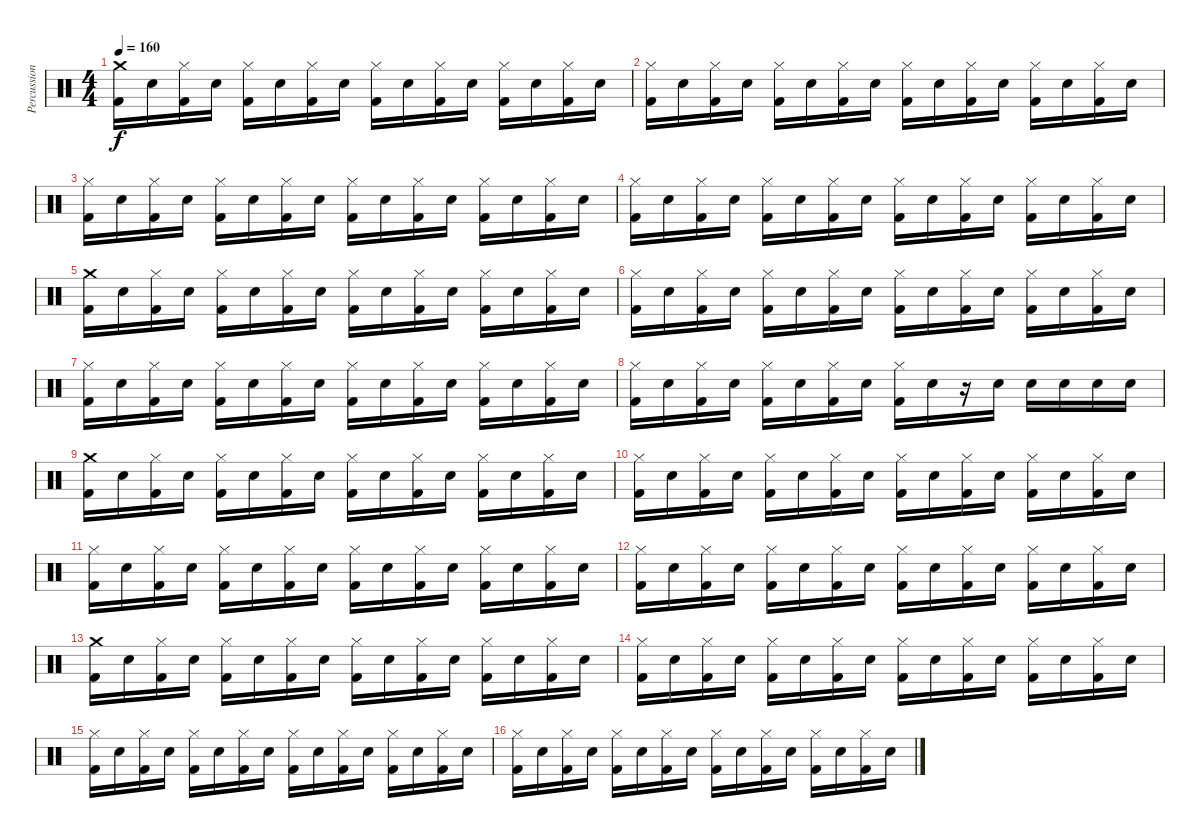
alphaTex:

\track ("Percussions" "Percussion") {instrument percussion}
\staff {score}
\articulation defaults
\ts (4 4)
\tempo 160
\clef neutral
\ks c
("Crash medium (hit)" "Kick (hit) 2").16{dy f} "Snare (hit) 2".16 ("Hi-Hat (closed)" "Kick (hit) 2").16 "Snare (hit) 2".16 ("Hi-Hat (closed)" "Kick (hit) 2").16 "Snare (hit) 2".16 ("Hi-Hat (closed)" "Kick (hit) 2").16 "Snare (hit) 2".16 ("Hi-Hat (closed)" "Kick (hit) 2").16 "Snare (hit) 2".16 ("Hi-Hat (closed)" "Kick (hit) 2").16 "Snare (hit) 2".16 ("Hi-Hat (closed)" "Kick (hit) 2").16 "Snare (hit) 2".16 ("Hi-Hat (closed)" "Kick (hit) 2").16 "Snare (hit) 2".16 |
("Hi-Hat (closed)" "Kick (hit) 2").16 "Snare (hit) 2".16 ("Hi-Hat (closed)" "Kick (hit) 2").16 "Snare (hit) 2".16 ("Hi-Hat (closed)" "Kick (hit) 2").16 "Snare (hit) 2".16 ("Hi-Hat (closed)" "Kick (hit) 2").16 "Snare (hit) 2".16 ("Hi-Hat (closed)" "Kick (hit) 2").16 "Snare (hit) 2".16 ("Hi-Hat (closed)" "Kick (hit) 2").16 "Snare (hit) 2".16 ("Hi-Hat (closed)" "Kick (hit) 2").16 "Snare (hit) 2".16 ("Hi-Hat (closed)" "Kick (hit) 2").16 "Snare (hit) 2".16 |
("Hi-Hat (closed)" "Kick (hit) 2").16 "Snare (hit) 2".16 ("Hi-Hat (closed)" "Kick (hit) 2").16 "Snare (hit) 2".16 ("Hi-Hat (closed)" "Kick (hit) 2").16 "Snare (hit) 2".16 ("Hi-Hat (closed)" "Kick (hit) 2").16 "Snare (hit) 2".16 ("Hi-Hat (closed)" "Kick (hit) 2").16 "Snare (hit) 2".16 ("Hi-Hat (closed)" "Kick (hit) 2").16 "Snare (hit) 2".16 ("Hi-Hat (closed)" "Kick (hit) 2").16 "Snare (hit) 2".16 ("Hi-Hat (closed)" "Kick (hit) 2").16 "Snare (hit) 2".16 |
("Hi-Hat (closed)" "Kick (hit) 2").16 "Snare (hit) 2".16 ("Hi-Hat (closed)" "Kick (hit) 2").16 "Snare (hit) 2".16 ("Hi-Hat (closed)" "Kick (hit) 2").16 "Snare (hit) 2".16 ("Hi-Hat (closed)" "Kick (hit) 2").16 "Snare (hit) 2".16 ("Hi-Hat (closed)" "Kick (hit) 2").16 "Snare (hit) 2".16 ("Hi-Hat (closed)" "Kick (hit) 2").16 "Snare (hit) 2".16 ("Hi-Hat (closed)" "Kick (hit) 2").16 "Snare (hit) 2".16 ("Hi-Hat (closed)" "Kick (hit) 2").16 "Snare (hit) 2".16 |
("Crash medium (hit)" "Kick (hit) 2").16 "Snare (hit) 2".16 ("Hi-Hat (closed)" "Kick (hit) 2").16 "Snare (hit) 2".16 ("Hi-Hat (closed)" "Kick (hit) 2").16 "Snare (hit) 2".16 ("Hi-Hat (closed)" "Kick (hit) 2").16 "Snare (hit) 2".16 ("Hi-Hat (closed)" "Kick (hit) 2").16 "Snare (hit) 2".16 ("Hi-Hat (closed)" "Kick (hit) 2").16 "Snare (hit) 2".16 ("Hi-Hat (closed)" "Kick (hit) 2").16 "Snare (hit) 2".16 ("Hi-Hat (closed)" "Kick (hit) 2").16 "Snare (hit) 2".16 |
("Hi-Hat (closed)" "Kick (hit) 2").16 "Snare (hit) 2".16 ("Hi-Hat (closed)" "Kick (hit) 2").16 "Snare (hit) 2".16 ("Hi-Hat (closed)" "Kick (hit) 2").16 "Snare (hit) 2".16 ("Hi-Hat (closed)" "Kick (hit) 2").16 "Snare (hit) 2".16 ("Hi-Hat (closed)" "Kick (hit) 2").16 "Snare (hit) 2".16 ("Hi-Hat (closed)" "Kick (hit) 2").16 "Snare (hit) 2".16 ("Hi-Hat (closed)" "Kick (hit) 2").16 "Snare (hit) 2".16 ("Hi-Hat (closed)" "Kick (hit) 2").16 "Snare (hit) 2".16 |
("Hi-Hat (closed)" "Kick (hit) 2").16 "Snare (hit) 2".16 ("Hi-Hat (closed)" "Kick (hit) 2").16 "Snare (hit) 2".16 ("Hi-Hat (closed)" "Kick (hit) 2").16 "Snare (hit) 2".16 ("Hi-Hat (closed)" "Kick (hit) 2").16 "Snare (hit) 2".16 ("Hi-Hat (closed)" "Kick (hit) 2").16 "Snare (hit) 2".16 ("Hi-Hat (closed)" "Kick (hit) 2").16 "Snare (hit) 2".16 ("Hi-Hat (closed)" "Kick (hit) 2").16 "Snare (hit) 2".16 ("Hi-Hat (closed)" "Kick (hit) 2").16 "Snare (hit) 2".16 |
("Hi-Hat (closed)" "Kick (hit) 2").16 "Snare (hit) 2".16 ("Hi-Hat (closed)" "Kick (hit) 2").16 "Snare (hit) 2".16 ("Hi-Hat (closed)" "Kick (hit) 2").16 "Snare (hit) 2".16 ("Hi-Hat (closed)" "Kick (hit) 2").16 "Snare (hit) 2".16 ("Hi-Hat (closed)" "Kick (hit) 2").16 "Snare (hit) 2".16 r.16 "Snare (hit) 2".16 "Snare (hit) 2".16 "Snare (hit) 2".16 "Snare (hit) 2".16 "Snare (hit) 2".16 |
("Crash medium (hit)" "Kick (hit) 2").16 "Snare (hit) 2".16 ("Hi-Hat (closed)" "Kick (hit) 2").16 "Snare (hit) 2".16 ("Hi-Hat (closed)" "Kick (hit) 2").16 "Snare (hit) 2".16 ("Hi-Hat (closed)" "Kick (hit) 2").16 "Snare (hit) 2".16 ("Hi-Hat (closed)" "Kick (hit) 2").16 "Snare (hit) 2".16 ("Hi-Hat (closed)" "Kick (hit) 2").16 "Snare (hit) 2".16 ("Hi-Hat (closed)" "Kick (hit) 2").16 "Snare (hit) 2".16 ("Hi-Hat (closed)" "Kick (hit) 2").16 "Snare (hit) 2".16 |
("Hi-Hat (closed)" "Kick (hit) 2").16 "Snare (hit) 2".16 ("Hi-Hat (closed)" "Kick (hit) 2").16 "Snare (hit) 2".16 ("Hi-Hat (closed)" "Kick (hit) 2").16 "Snare (hit) 2".16 ("Hi-Hat (closed)" "Kick (hit) 2").16 "Snare (hit) 2".16 ("Hi-Hat (closed)" "Kick (hit) 2").16 "Snare (hit) 2".16 ("Hi-Hat (closed)" "Kick (hit) 2").16 "Snare (hit) 2".16 ("Hi-Hat (closed)" "Kick (hit) 2").16 "Snare (hit) 2".16 ("Hi-Hat (closed)" "Kick (hit) 2").16 "Snare (hit) 2".16 |
("Hi-Hat (closed)" "Kick (hit) 2").16 "Snare (hit) 2".16 ("Hi-Hat (closed)" "Kick (hit) 2").16 "Snare (hit) 2".16 ("Hi-Hat (closed)" "Kick (hit) 2").16 "Snare (hit) 2".16 ("Hi-Hat (closed)" "Kick (hit) 2").16 "Snare (hit) 2".16 ("Hi-Hat (closed)" "Kick (hit) 2").16 "Snare (hit) 2".16 ("Hi-Hat (closed)" "Kick (hit) 2").16 "Snare (hit) 2".16 ("Hi-Hat (closed)" "Kick (hit) 2").16 "Snare (hit) 2".16 ("Hi-Hat (closed)" "Kick (hit) 2").16 "Snare (hit) 2".16 |
("Hi-Hat (closed)" "Kick (hit) 2").16 "Snare (hit) 2".16 ("Hi-Hat (closed)" "Kick (hit) 2").16 "Snare (hit) 2".16 ("Hi-Hat (closed)" "Kick (hit) 2").16 "Snare (hit) 2".16 ("Hi-Hat (closed)" "Kick (hit) 2").16 "Snare (hit) 2".16 ("Hi-Hat (closed)" "Kick (hit) 2").16 "Snare (hit) 2".16 ("Hi-Hat (closed)" "Kick (hit) 2").16 "Snare (hit) 2".16 ("Hi-Hat (closed)" "Kick (hit) 2").16 "Snare (hit) 2".16 ("Hi-Hat (closed)" "Kick (hit) 2").16 "Snare (hit) 2".16 |
("Crash medium (hit)" "Kick (hit) 2").16 "Snare (hit) 2".16 ("Hi-Hat (closed)" "Kick (hit) 2").16 "Snare (hit) 2".16 ("Hi-Hat (closed)" "Kick (hit) 2").16 "Snare (hit) 2".16 ("Hi-Hat (closed)" "Kick (hit) 2").16 "Snare (hit) 2".16 ("Hi-Hat (closed)" "Kick (hit) 2").16 "Snare (hit) 2".16 ("Hi-Hat (closed)" "Kick (hit) 2").16 "Snare (hit) 2".16 ("Hi-Hat (closed)" "Kick (hit) 2").16 "Snare (hit) 2".16 ("Hi-Hat (closed)" "Kick (hit) 2").16 "Snare (hit) 2".16 |
("Hi-Hat (closed)" "Kick (hit) 2").16 "Snare (hit) 2".16 ("Hi-Hat (closed)" "Kick (hit) 2").16 "Snare (hit) 2".16 ("Hi-Hat (closed)" "Kick (hit) 2").16 "Snare (hit) 2".16 ("Hi-Hat (closed)" "Kick (hit) 2").16 "Snare (hit) 2".16 ("Hi-Hat (closed)" "Kick (hit) 2").16 "Snare (hit) 2".16 ("Hi-Hat (closed)" "Kick (hit) 2").16 "Snare (hit) 2".16 ("Hi-Hat (closed)" "Kick (hit) 2").16 "Snare (hit) 2".16 ("Hi-Hat (closed)" "Kick (hit) 2").16 "Snare (hit) 2".16 |
("Hi-Hat (closed)" "Kick (hit) 2").16 "Snare (hit) 2".16 ("Hi-Hat (closed)" "Kick (hit) 2").16 "Snare (hit) 2".16 ("Hi-Hat (closed)" "Kick (hit) 2").16 "Snare (hit) 2".16 ("Hi-Hat (closed)" "Kick (hit) 2").16 "Snare (hit) 2".16 ("Hi-Hat (closed)" "Kick (hit) 2").16 "Snare (hit) 2".16 ("Hi-Hat (closed)" "Kick (hit) 2").16 "Snare (hit) 2".16 ("Hi-Hat (closed)" "Kick (hit) 2").16 "Snare (hit) 2".16 ("Hi-Hat (closed)" "Kick (hit) 2").16 "Snare (hit) 2".16 |
("Hi-Hat (closed)" "Kick (hit) 2").16 "Snare (hit) 2".16 ("Hi-Hat (closed)" "Kick (hit) 2").16 "Snare (hit) 2".16 ("Hi-Hat (closed)" "Kick (hit) 2").16 "Snare (hit) 2".16 ("Hi-Hat (closed)" "Kick (hit) 2").16 "Snare (hit) 2".16 ("Hi-Hat (closed)" "Kick (hit) 2").16 "Snare (hit) 2".16 ("Hi-Hat (closed)" "Kick (hit) 2").16 "Snare (hit) 2".16 ("Hi-Hat (closed)" "Kick (hit) 2").16 "Snare (hit) 2".16 ("Hi-Hat (closed)" "Kick (hit) 2").16 "Snare (hit) 2".16
